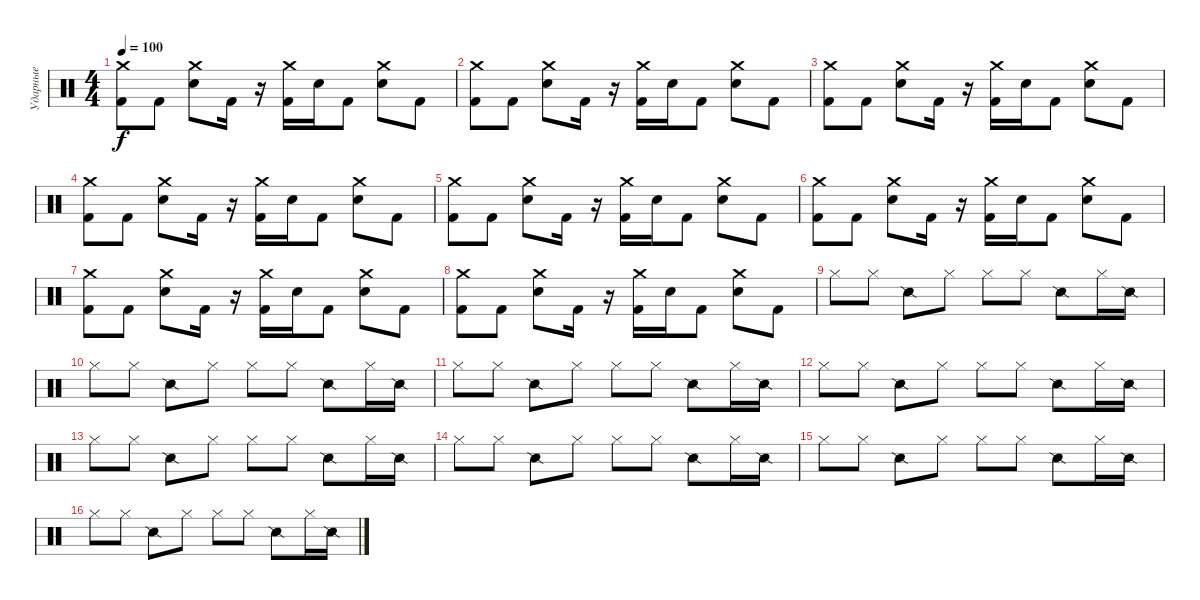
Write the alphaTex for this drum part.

\track ("Ударные" "Ударные") {instrument percussion}
\staff {score}
\articulation defaults
\ts (4 4)
\tempo 100
\clef neutral
\ks c
("Crash medium (hit)" "Kick (hit) 2").8{dy f} "Kick (hit) 2".8 ("Crash medium (hit)" "Electric Snare (hit)").8 "Kick (hit) 2".16 r.16 ("Crash medium (hit)" "Kick (hit) 2").16 "Electric Snare (hit)".16 "Kick (hit) 2".8 ("Crash medium (hit)" "Electric Snare (hit)").8 "Kick (hit) 2".8 |
("Crash medium (hit)" "Kick (hit) 2").8 "Kick (hit) 2".8 ("Crash medium (hit)" "Electric Snare (hit)").8 "Kick (hit) 2".16 r.16 ("Crash medium (hit)" "Kick (hit) 2").16 "Electric Snare (hit)".16 "Kick (hit) 2".8 ("Crash medium (hit)" "Electric Snare (hit)").8 "Kick (hit) 2".8 |
("Crash medium (hit)" "Kick (hit) 2").8 "Kick (hit) 2".8 ("Crash medium (hit)" "Electric Snare (hit)").8 "Kick (hit) 2".16 r.16 ("Crash medium (hit)" "Kick (hit) 2").16 "Electric Snare (hit)".16 "Kick (hit) 2".8 ("Crash medium (hit)" "Electric Snare (hit)").8 "Kick (hit) 2".8 |
("Crash medium (hit)" "Kick (hit) 2").8 "Kick (hit) 2".8 ("Crash medium (hit)" "Electric Snare (hit)").8 "Kick (hit) 2".16 r.16 ("Crash medium (hit)" "Kick (hit) 2").16 "Electric Snare (hit)".16 "Kick (hit) 2".8 ("Crash medium (hit)" "Electric Snare (hit)").8 "Kick (hit) 2".8 |
("Crash medium (hit)" "Kick (hit) 2").8 "Kick (hit) 2".8 ("Crash medium (hit)" "Electric Snare (hit)").8 "Kick (hit) 2".16 r.16 ("Crash medium (hit)" "Kick (hit) 2").16 "Electric Snare (hit)".16 "Kick (hit) 2".8 ("Crash medium (hit)" "Electric Snare (hit)").8 "Kick (hit) 2".8 |
("Crash medium (hit)" "Kick (hit) 2").8 "Kick (hit) 2".8 ("Crash medium (hit)" "Electric Snare (hit)").8 "Kick (hit) 2".16 r.16 ("Crash medium (hit)" "Kick (hit) 2").16 "Electric Snare (hit)".16 "Kick (hit) 2".8 ("Crash medium (hit)" "Electric Snare (hit)").8 "Kick (hit) 2".8 |
("Crash medium (hit)" "Kick (hit) 2").8 "Kick (hit) 2".8 ("Crash medium (hit)" "Electric Snare (hit)").8 "Kick (hit) 2".16 r.16 ("Crash medium (hit)" "Kick (hit) 2").16 "Electric Snare (hit)".16 "Kick (hit) 2".8 ("Crash medium (hit)" "Electric Snare (hit)").8 "Kick (hit) 2".8 |
("Crash medium (hit)" "Kick (hit) 2").8 "Kick (hit) 2".8 ("Crash medium (hit)" "Electric Snare (hit)").8 "Kick (hit) 2".16 r.16 ("Crash medium (hit)" "Kick (hit) 2").16 "Electric Snare (hit)".16 "Kick (hit) 2".8 ("Crash medium (hit)" "Electric Snare (hit)").8 "Kick (hit) 2".8 |
"Hi-Hat (closed)".8 "Hi-Hat (closed)".8 "Snare (side stick) 2".8 "Hi-Hat (closed)".8 "Hi-Hat (closed)".8 "Hi-Hat (closed)".8 "Snare (side stick) 2".8 "Hi-Hat (closed)".16 "Snare (side stick) 2".16 |
"Hi-Hat (closed)".8 "Hi-Hat (closed)".8 "Snare (side stick) 2".8 "Hi-Hat (closed)".8 "Hi-Hat (closed)".8 "Hi-Hat (closed)".8 "Snare (side stick) 2".8 "Hi-Hat (closed)".16 "Snare (side stick) 2".16 |
"Hi-Hat (closed)".8 "Hi-Hat (closed)".8 "Snare (side stick) 2".8 "Hi-Hat (closed)".8 "Hi-Hat (closed)".8 "Hi-Hat (closed)".8 "Snare (side stick) 2".8 "Hi-Hat (closed)".16 "Snare (side stick) 2".16 |
"Hi-Hat (closed)".8 "Hi-Hat (closed)".8 "Snare (side stick) 2".8 "Hi-Hat (closed)".8 "Hi-Hat (closed)".8 "Hi-Hat (closed)".8 "Snare (side stick) 2".8 "Hi-Hat (closed)".16 "Snare (side stick) 2".16 |
"Hi-Hat (closed)".8 "Hi-Hat (closed)".8 "Snare (side stick) 2".8 "Hi-Hat (closed)".8 "Hi-Hat (closed)".8 "Hi-Hat (closed)".8 "Snare (side stick) 2".8 "Hi-Hat (closed)".16 "Snare (side stick) 2".16 |
"Hi-Hat (closed)".8 "Hi-Hat (closed)".8 "Snare (side stick) 2".8 "Hi-Hat (closed)".8 "Hi-Hat (closed)".8 "Hi-Hat (closed)".8 "Snare (side stick) 2".8 "Hi-Hat (closed)".16 "Snare (side stick) 2".16 |
"Hi-Hat (closed)".8 "Hi-Hat (closed)".8 "Snare (side stick) 2".8 "Hi-Hat (closed)".8 "Hi-Hat (closed)".8 "Hi-Hat (closed)".8 "Snare (side stick) 2".8 "Hi-Hat (closed)".16 "Snare (side stick) 2".16 |
"Hi-Hat (closed)".8 "Hi-Hat (closed)".8 "Snare (side stick) 2".8 "Hi-Hat (closed)".8 "Hi-Hat (closed)".8 "Hi-Hat (closed)".8 "Snare (side stick) 2".8 "Hi-Hat (closed)".16 "Snare (side stick) 2".16
